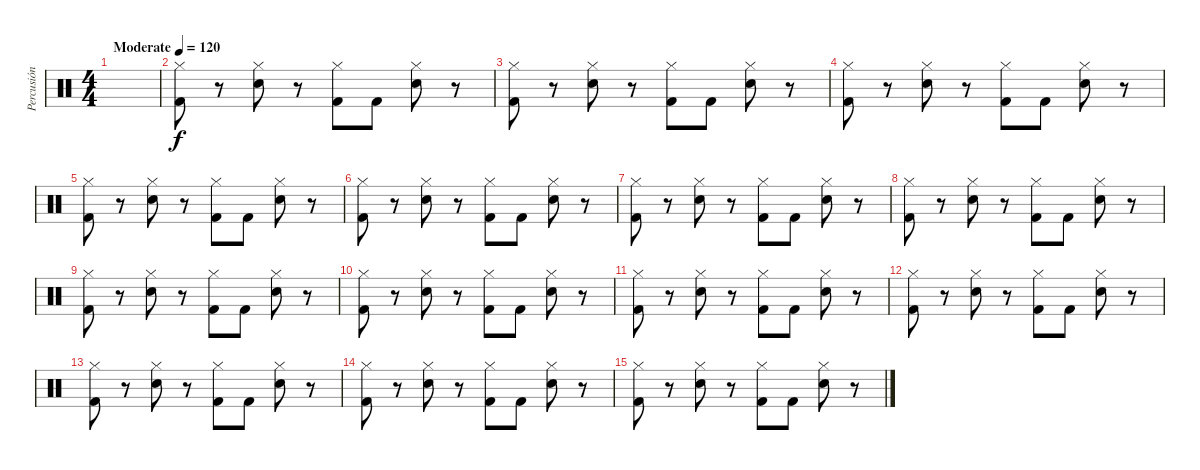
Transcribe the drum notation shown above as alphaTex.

\track ("Percusión" "Percusión") {solo instrument percussion}
\staff {score}
\articulation defaults
\ts (4 4)
\tempo (120 "Moderate")
\clef neutral
\ks c
|
("Kick (hit) 2" "Hi-Hat (closed)").8 r.8 ("Electric Snare (hit)" "Hi-Hat (closed)").8 r.8 ("Kick (hit) 2" "Hi-Hat (closed)").8 "Kick (hit) 2".8 ("Electric Snare (hit)" "Hi-Hat (closed)").8 r.8 |
("Kick (hit) 2" "Hi-Hat (closed)").8 r.8 ("Electric Snare (hit)" "Hi-Hat (closed)").8 r.8 ("Kick (hit) 2" "Hi-Hat (closed)").8 "Kick (hit) 2".8 ("Electric Snare (hit)" "Hi-Hat (closed)").8 r.8 |
("Kick (hit) 2" "Hi-Hat (closed)").8 r.8 ("Electric Snare (hit)" "Hi-Hat (closed)").8 r.8 ("Kick (hit) 2" "Hi-Hat (closed)").8 "Kick (hit) 2".8 ("Electric Snare (hit)" "Hi-Hat (closed)").8 r.8 |
("Kick (hit) 2" "Hi-Hat (closed)").8 r.8 ("Electric Snare (hit)" "Hi-Hat (closed)").8 r.8 ("Kick (hit) 2" "Hi-Hat (closed)").8 "Kick (hit) 2".8 ("Electric Snare (hit)" "Hi-Hat (closed)").8 r.8 |
("Kick (hit) 2" "Hi-Hat (closed)").8 r.8 ("Electric Snare (hit)" "Hi-Hat (closed)").8 r.8 ("Kick (hit) 2" "Hi-Hat (closed)").8 "Kick (hit) 2".8 ("Electric Snare (hit)" "Hi-Hat (closed)").8 r.8 |
("Kick (hit) 2" "Hi-Hat (closed)").8 r.8 ("Electric Snare (hit)" "Hi-Hat (closed)").8 r.8 ("Kick (hit) 2" "Hi-Hat (closed)").8 "Kick (hit) 2".8 ("Electric Snare (hit)" "Hi-Hat (closed)").8 r.8 |
("Kick (hit) 2" "Hi-Hat (closed)").8 r.8 ("Electric Snare (hit)" "Hi-Hat (closed)").8 r.8 ("Kick (hit) 2" "Hi-Hat (closed)").8 "Kick (hit) 2".8 ("Electric Snare (hit)" "Hi-Hat (closed)").8 r.8 |
("Kick (hit) 2" "Hi-Hat (closed)").8 r.8 ("Electric Snare (hit)" "Hi-Hat (closed)").8 r.8 ("Kick (hit) 2" "Hi-Hat (closed)").8 "Kick (hit) 2".8 ("Electric Snare (hit)" "Hi-Hat (closed)").8 r.8 |
("Kick (hit) 2" "Hi-Hat (closed)").8 r.8 ("Electric Snare (hit)" "Hi-Hat (closed)").8 r.8 ("Kick (hit) 2" "Hi-Hat (closed)").8 "Kick (hit) 2".8 ("Electric Snare (hit)" "Hi-Hat (closed)").8 r.8 |
("Kick (hit) 2" "Hi-Hat (closed)").8 r.8 ("Electric Snare (hit)" "Hi-Hat (closed)").8 r.8 ("Kick (hit) 2" "Hi-Hat (closed)").8 "Kick (hit) 2".8 ("Electric Snare (hit)" "Hi-Hat (closed)").8 r.8 |
("Kick (hit) 2" "Hi-Hat (closed)").8 r.8 ("Electric Snare (hit)" "Hi-Hat (closed)").8 r.8 ("Kick (hit) 2" "Hi-Hat (closed)").8 "Kick (hit) 2".8 ("Electric Snare (hit)" "Hi-Hat (closed)").8 r.8 |
("Kick (hit) 2" "Hi-Hat (closed)").8 r.8 ("Electric Snare (hit)" "Hi-Hat (closed)").8 r.8 ("Kick (hit) 2" "Hi-Hat (closed)").8 "Kick (hit) 2".8 ("Electric Snare (hit)" "Hi-Hat (closed)").8 r.8 |
("Kick (hit) 2" "Hi-Hat (closed)").8 r.8 ("Electric Snare (hit)" "Hi-Hat (closed)").8 r.8 ("Kick (hit) 2" "Hi-Hat (closed)").8 "Kick (hit) 2".8 ("Electric Snare (hit)" "Hi-Hat (closed)").8 r.8 |
("Kick (hit) 2" "Hi-Hat (closed)").8 r.8 ("Electric Snare (hit)" "Hi-Hat (closed)").8 r.8 ("Kick (hit) 2" "Hi-Hat (closed)").8 "Kick (hit) 2".8 ("Electric Snare (hit)" "Hi-Hat (closed)").8 r.8
